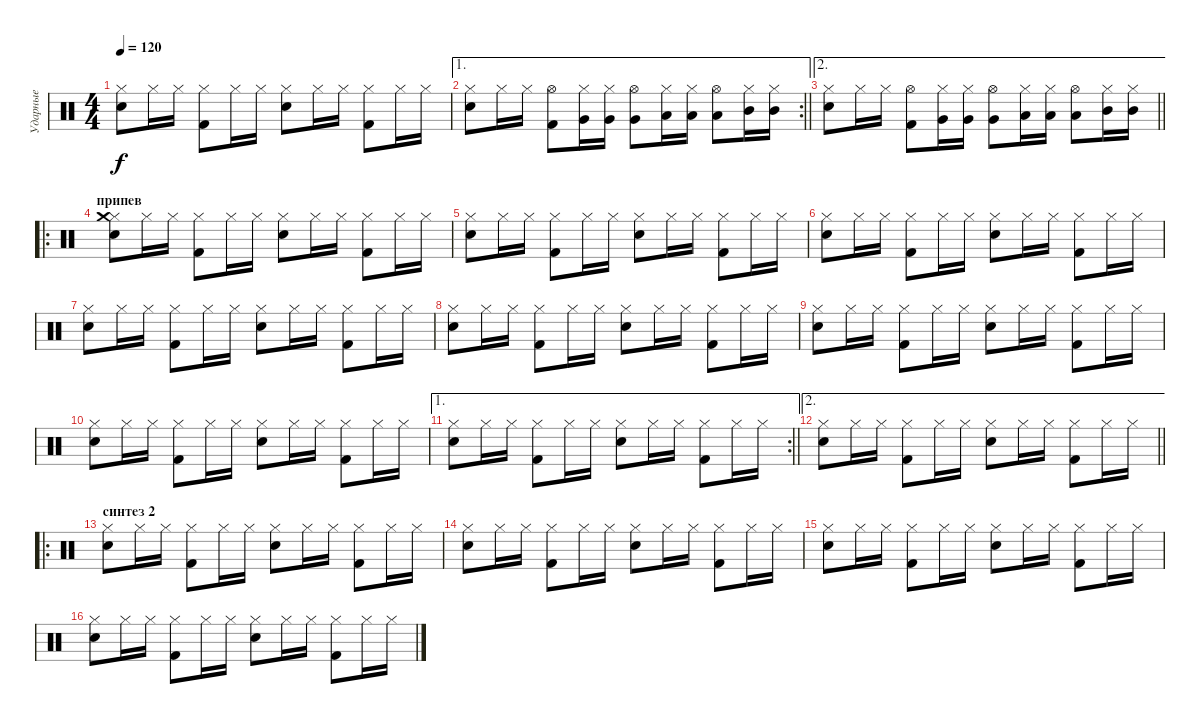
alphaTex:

\track ("Ударные" "Ударные") {instrument percussion}
\staff {score}
\articulation defaults
\ts (4 4)
\tempo 120
\clef neutral
\ks c
("Hi-Hat (closed)" "Snare (hit) 2").8{dy f} "Hi-Hat (closed)".16 "Hi-Hat (closed)".16 ("Hi-Hat (closed)" "Kick (hit) 2").8 "Hi-Hat (closed)".16 "Hi-Hat (closed)".16 ("Hi-Hat (closed)" "Snare (hit) 2").8 "Hi-Hat (closed)".16 "Hi-Hat (closed)".16 ("Hi-Hat (closed)" "Kick (hit) 2").8 "Hi-Hat (closed)".16 "Hi-Hat (closed)".16 |
\ae 1
\rc 2
\barLineRight lightlight
("Hi-Hat (closed)" "Snare (hit) 2").8 "Hi-Hat (closed)".16 "Hi-Hat (closed)".16 ("Hi-Hat (open)" "Kick (hit) 2").8 ("Hi-Hat (closed)" "Very Low Tom (hit)").16 ("Hi-Hat (closed)" "Very Low Tom (hit)").16 ("Hi-Hat (open)" "Very Low Tom (hit)").8 ("Hi-Hat (closed)" "Low Tom (hit)").16 ("Hi-Hat (closed)" "Low Tom (hit)").16 ("Hi-Hat (open)" "Low Tom (hit)").8 ("Hi-Hat (closed)" "Mid Tom (hit)").16 ("Hi-Hat (closed)" "Mid Tom (hit)").16 |
\ae 2
\barLineRight lightlight
("Hi-Hat (closed)" "Snare (hit) 2").8 "Hi-Hat (closed)".16 "Hi-Hat (closed)".16 ("Hi-Hat (open)" "Kick (hit) 2").8 ("Hi-Hat (closed)" "Very Low Tom (hit)").16 ("Hi-Hat (closed)" "Very Low Tom (hit)").16 ("Hi-Hat (open)" "Very Low Tom (hit)").8 ("Hi-Hat (closed)" "Low Tom (hit)").16 ("Hi-Hat (closed)" "Low Tom (hit)").16 ("Hi-Hat (open)" "Low Tom (hit)").8 ("Hi-Hat (closed)" "Mid Tom (hit)").16 ("Hi-Hat (closed)" "Mid Tom (hit)").16 |
\ro
\section ("" "припев ")
("Hi-Hat (closed)" "Snare (hit) 2" "Crash medium (hit)").8 "Hi-Hat (closed)".16 "Hi-Hat (closed)".16 ("Hi-Hat (closed)" "Kick (hit) 2").8 "Hi-Hat (closed)".16 "Hi-Hat (closed)".16 ("Hi-Hat (closed)" "Snare (hit) 2").8 "Hi-Hat (closed)".16 "Hi-Hat (closed)".16 ("Hi-Hat (closed)" "Kick (hit) 2").8 "Hi-Hat (closed)".16 "Hi-Hat (closed)".16 |
("Hi-Hat (closed)" "Snare (hit) 2").8 "Hi-Hat (closed)".16 "Hi-Hat (closed)".16 ("Hi-Hat (closed)" "Kick (hit) 2").8 "Hi-Hat (closed)".16 "Hi-Hat (closed)".16 ("Hi-Hat (closed)" "Snare (hit) 2").8 "Hi-Hat (closed)".16 "Hi-Hat (closed)".16 ("Hi-Hat (closed)" "Kick (hit) 2").8 "Hi-Hat (closed)".16 "Hi-Hat (closed)".16 |
("Hi-Hat (closed)" "Snare (hit) 2").8 "Hi-Hat (closed)".16 "Hi-Hat (closed)".16 ("Hi-Hat (closed)" "Kick (hit) 2").8 "Hi-Hat (closed)".16 "Hi-Hat (closed)".16 ("Hi-Hat (closed)" "Snare (hit) 2").8 "Hi-Hat (closed)".16 "Hi-Hat (closed)".16 ("Hi-Hat (closed)" "Kick (hit) 2").8 "Hi-Hat (closed)".16 "Hi-Hat (closed)".16 |
("Hi-Hat (closed)" "Snare (hit) 2").8 "Hi-Hat (closed)".16 "Hi-Hat (closed)".16 ("Hi-Hat (closed)" "Kick (hit) 2").8 "Hi-Hat (closed)".16 "Hi-Hat (closed)".16 ("Hi-Hat (closed)" "Snare (hit) 2").8 "Hi-Hat (closed)".16 "Hi-Hat (closed)".16 ("Hi-Hat (closed)" "Kick (hit) 2").8 "Hi-Hat (closed)".16 "Hi-Hat (closed)".16 |
("Hi-Hat (closed)" "Snare (hit) 2").8 "Hi-Hat (closed)".16 "Hi-Hat (closed)".16 ("Hi-Hat (closed)" "Kick (hit) 2").8 "Hi-Hat (closed)".16 "Hi-Hat (closed)".16 ("Hi-Hat (closed)" "Snare (hit) 2").8 "Hi-Hat (closed)".16 "Hi-Hat (closed)".16 ("Hi-Hat (closed)" "Kick (hit) 2").8 "Hi-Hat (closed)".16 "Hi-Hat (closed)".16 |
("Hi-Hat (closed)" "Snare (hit) 2").8 "Hi-Hat (closed)".16 "Hi-Hat (closed)".16 ("Hi-Hat (closed)" "Kick (hit) 2").8 "Hi-Hat (closed)".16 "Hi-Hat (closed)".16 ("Hi-Hat (closed)" "Snare (hit) 2").8 "Hi-Hat (closed)".16 "Hi-Hat (closed)".16 ("Hi-Hat (closed)" "Kick (hit) 2").8 "Hi-Hat (closed)".16 "Hi-Hat (closed)".16 |
("Hi-Hat (closed)" "Snare (hit) 2").8 "Hi-Hat (closed)".16 "Hi-Hat (closed)".16 ("Hi-Hat (closed)" "Kick (hit) 2").8 "Hi-Hat (closed)".16 "Hi-Hat (closed)".16 ("Hi-Hat (closed)" "Snare (hit) 2").8 "Hi-Hat (closed)".16 "Hi-Hat (closed)".16 ("Hi-Hat (closed)" "Kick (hit) 2").8 "Hi-Hat (closed)".16 "Hi-Hat (closed)".16 |
\ae 1
\rc 2
\barLineRight lightlight
("Hi-Hat (closed)" "Snare (hit) 2").8 "Hi-Hat (closed)".16 "Hi-Hat (closed)".16 ("Hi-Hat (closed)" "Kick (hit) 2").8 "Hi-Hat (closed)".16 "Hi-Hat (closed)".16 ("Hi-Hat (closed)" "Snare (hit) 2").8 "Hi-Hat (closed)".16 "Hi-Hat (closed)".16 ("Hi-Hat (closed)" "Kick (hit) 2").8 "Hi-Hat (closed)".16 "Hi-Hat (closed)".16 |
\ae 2
\barLineRight lightlight
("Hi-Hat (closed)" "Snare (hit) 2").8 "Hi-Hat (closed)".16 "Hi-Hat (closed)".16 ("Hi-Hat (closed)" "Kick (hit) 2").8 "Hi-Hat (closed)".16 "Hi-Hat (closed)".16 ("Hi-Hat (closed)" "Snare (hit) 2").8 "Hi-Hat (closed)".16 "Hi-Hat (closed)".16 ("Hi-Hat (closed)" "Kick (hit) 2").8 "Hi-Hat (closed)".16 "Hi-Hat (closed)".16 |
\ro
\section ("" "синтез 2")
("Hi-Hat (closed)" "Snare (hit) 2").8 "Hi-Hat (closed)".16 "Hi-Hat (closed)".16 ("Hi-Hat (closed)" "Kick (hit) 2").8 "Hi-Hat (closed)".16 "Hi-Hat (closed)".16 ("Hi-Hat (closed)" "Snare (hit) 2").8 "Hi-Hat (closed)".16 "Hi-Hat (closed)".16 ("Hi-Hat (closed)" "Kick (hit) 2").8 "Hi-Hat (closed)".16 "Hi-Hat (closed)".16 |
("Hi-Hat (closed)" "Snare (hit) 2").8 "Hi-Hat (closed)".16 "Hi-Hat (closed)".16 ("Hi-Hat (closed)" "Kick (hit) 2").8 "Hi-Hat (closed)".16 "Hi-Hat (closed)".16 ("Hi-Hat (closed)" "Snare (hit) 2").8 "Hi-Hat (closed)".16 "Hi-Hat (closed)".16 ("Hi-Hat (closed)" "Kick (hit) 2").8 "Hi-Hat (closed)".16 "Hi-Hat (closed)".16 |
("Hi-Hat (closed)" "Snare (hit) 2").8 "Hi-Hat (closed)".16 "Hi-Hat (closed)".16 ("Hi-Hat (closed)" "Kick (hit) 2").8 "Hi-Hat (closed)".16 "Hi-Hat (closed)".16 ("Hi-Hat (closed)" "Snare (hit) 2").8 "Hi-Hat (closed)".16 "Hi-Hat (closed)".16 ("Hi-Hat (closed)" "Kick (hit) 2").8 "Hi-Hat (closed)".16 "Hi-Hat (closed)".16 |
("Hi-Hat (closed)" "Snare (hit) 2").8 "Hi-Hat (closed)".16 "Hi-Hat (closed)".16 ("Hi-Hat (closed)" "Kick (hit) 2").8 "Hi-Hat (closed)".16 "Hi-Hat (closed)".16 ("Hi-Hat (closed)" "Snare (hit) 2").8 "Hi-Hat (closed)".16 "Hi-Hat (closed)".16 ("Hi-Hat (closed)" "Kick (hit) 2").8 "Hi-Hat (closed)".16 "Hi-Hat (closed)".16
